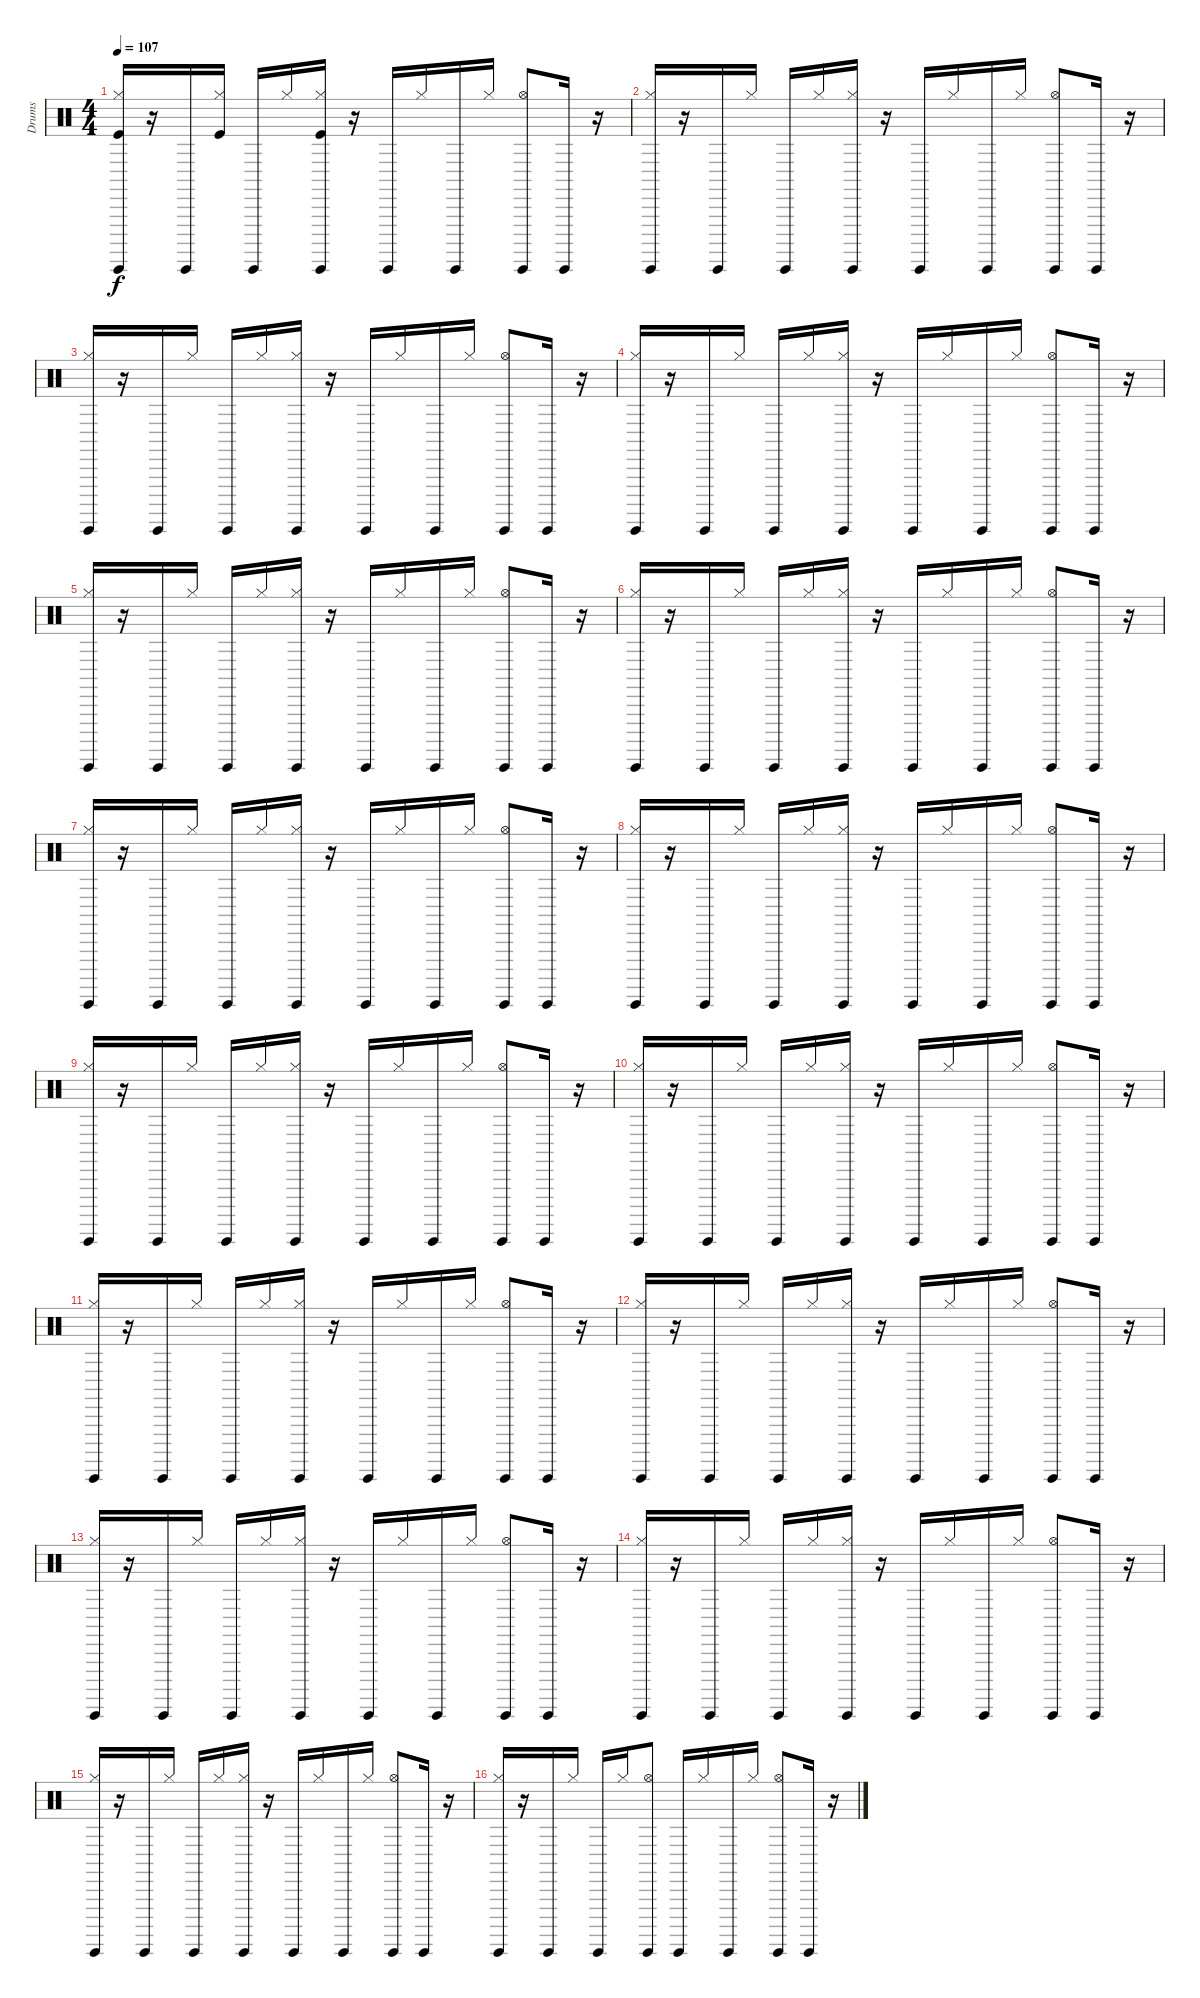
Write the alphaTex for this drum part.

\track ("Drums" "Drums") {instrument percussion}
\staff {score}
\articulation defaults
\ts (4 4)
\tempo 107
\clef neutral
\ks c
("Kick (hit)" "Guiro (hit)" "Hi-Hat (closed)").16{dy f} r.16 "Guiro (hit)".16 ("Kick (hit)" "Hi-Hat (closed)").16 "Guiro (hit)".16 "Hi-Hat (closed)".16 ("Kick (hit)" "Guiro (hit)" "Hi-Hat (closed)").16 r.16 "Guiro (hit)".16 "Hi-Hat (closed)".16 "Guiro (hit)".16 "Hi-Hat (closed)".16 ("Hi-Hat (open)" "Guiro (hit)").8 "Guiro (hit)".16 r.16 |
("Guiro (hit)" "Hi-Hat (closed)").16 r.16 "Guiro (hit)".16 "Hi-Hat (closed)".16 "Guiro (hit)".16 "Hi-Hat (closed)".16 ("Hi-Hat (closed)" "Guiro (hit)").16 r.16 "Guiro (hit)".16 "Hi-Hat (closed)".16 "Guiro (hit)".16 "Hi-Hat (closed)".16 ("Guiro (hit)" "Hi-Hat (open)").8 "Guiro (hit)".16 r.16 |
("Guiro (hit)" "Hi-Hat (closed)").16 r.16 "Guiro (hit)".16 "Hi-Hat (closed)".16 "Guiro (hit)".16 "Hi-Hat (closed)".16 ("Guiro (hit)" "Hi-Hat (closed)").16 r.16 "Guiro (hit)".16 "Hi-Hat (closed)".16 "Guiro (hit)".16 "Hi-Hat (closed)".16 ("Guiro (hit)" "Hi-Hat (open)").8 "Guiro (hit)".16 r.16 |
("Guiro (hit)" "Hi-Hat (closed)").16 r.16 "Guiro (hit)".16 "Hi-Hat (closed)".16 "Guiro (hit)".16 "Hi-Hat (closed)".16 ("Guiro (hit)" "Hi-Hat (closed)").16 r.16 "Guiro (hit)".16 "Hi-Hat (closed)".16 "Guiro (hit)".16 "Hi-Hat (closed)".16 ("Guiro (hit)" "Hi-Hat (open)").8 "Guiro (hit)".16 r.16 |
("Guiro (hit)" "Hi-Hat (closed)").16 r.16 "Guiro (hit)".16 "Hi-Hat (closed)".16 "Guiro (hit)".16 "Hi-Hat (closed)".16 ("Hi-Hat (closed)" "Guiro (hit)").16 r.16 "Guiro (hit)".16 "Hi-Hat (closed)".16 "Guiro (hit)".16 "Hi-Hat (closed)".16 ("Guiro (hit)" "Hi-Hat (open)").8 "Guiro (hit)".16 r.16 |
("Hi-Hat (closed)" "Guiro (hit)").16 r.16 "Guiro (hit)".16 "Hi-Hat (closed)".16 "Guiro (hit)".16 "Hi-Hat (closed)".16 ("Guiro (hit)" "Hi-Hat (closed)").16 r.16 "Guiro (hit)".16 "Hi-Hat (closed)".16 "Guiro (hit)".16 "Hi-Hat (closed)".16 ("Guiro (hit)" "Hi-Hat (open)").8 "Guiro (hit)".16 r.16 |
("Hi-Hat (closed)" "Guiro (hit)").16 r.16 "Guiro (hit)".16 "Hi-Hat (closed)".16 "Guiro (hit)".16 "Hi-Hat (closed)".16 ("Hi-Hat (closed)" "Guiro (hit)").16 r.16 "Guiro (hit)".16 "Hi-Hat (closed)".16 "Guiro (hit)".16 "Hi-Hat (closed)".16 ("Hi-Hat (open)" "Guiro (hit)").8 "Guiro (hit)".16 r.16 |
("Hi-Hat (closed)" "Guiro (hit)").16 r.16 "Guiro (hit)".16 "Hi-Hat (closed)".16 "Guiro (hit)".16 "Hi-Hat (closed)".16 ("Guiro (hit)" "Hi-Hat (closed)").16 r.16 "Guiro (hit)".16 "Hi-Hat (closed)".16 "Guiro (hit)".16 "Hi-Hat (closed)".16 ("Hi-Hat (open)" "Guiro (hit)").8 "Guiro (hit)".16 r.16 |
("Guiro (hit)" "Hi-Hat (closed)").16 r.16 "Guiro (hit)".16 "Hi-Hat (closed)".16 "Guiro (hit)".16 "Hi-Hat (closed)".16 ("Guiro (hit)" "Hi-Hat (closed)").16 r.16 "Guiro (hit)".16 "Hi-Hat (closed)".16 "Guiro (hit)".16 "Hi-Hat (closed)".16 ("Guiro (hit)" "Hi-Hat (open)").8 "Guiro (hit)".16 r.16 |
("Guiro (hit)" "Hi-Hat (closed)").16 r.16 "Guiro (hit)".16 "Hi-Hat (closed)".16 "Guiro (hit)".16 "Hi-Hat (closed)".16 ("Guiro (hit)" "Hi-Hat (closed)").16 r.16 "Guiro (hit)".16 "Hi-Hat (closed)".16 "Guiro (hit)".16 "Hi-Hat (closed)".16 ("Hi-Hat (open)" "Guiro (hit)").8 "Guiro (hit)".16 r.16 |
("Hi-Hat (closed)" "Guiro (hit)").16 r.16 "Guiro (hit)".16 "Hi-Hat (closed)".16 "Guiro (hit)".16 "Hi-Hat (closed)".16 ("Guiro (hit)" "Hi-Hat (closed)").16 r.16 "Guiro (hit)".16 "Hi-Hat (closed)".16 "Guiro (hit)".16 "Hi-Hat (closed)".16 ("Guiro (hit)" "Hi-Hat (open)").8 "Guiro (hit)".16 r.16 |
("Hi-Hat (closed)" "Guiro (hit)").16 r.16 "Guiro (hit)".16 "Hi-Hat (closed)".16 "Guiro (hit)".16 "Hi-Hat (closed)".16 ("Guiro (hit)" "Hi-Hat (closed)").16 r.16 "Guiro (hit)".16 "Hi-Hat (closed)".16 "Guiro (hit)".16 "Hi-Hat (closed)".16 ("Hi-Hat (open)" "Guiro (hit)").8 "Guiro (hit)".16 r.16 |
("Guiro (hit)" "Hi-Hat (closed)").16 r.16 "Guiro (hit)".16 "Hi-Hat (closed)".16 "Guiro (hit)".16 "Hi-Hat (closed)".16 ("Hi-Hat (closed)" "Guiro (hit)").16 r.16 "Guiro (hit)".16 "Hi-Hat (closed)".16 "Guiro (hit)".16 "Hi-Hat (closed)".16 ("Hi-Hat (open)" "Guiro (hit)").8 "Guiro (hit)".16 r.16 |
("Guiro (hit)" "Hi-Hat (closed)").16 r.16 "Guiro (hit)".16 "Hi-Hat (closed)".16 "Guiro (hit)".16 "Hi-Hat (closed)".16 ("Hi-Hat (closed)" "Guiro (hit)").16 r.16 "Guiro (hit)".16 "Hi-Hat (closed)".16 "Guiro (hit)".16 "Hi-Hat (closed)".16 ("Guiro (hit)" "Hi-Hat (open)").8 "Guiro (hit)".16 r.16 |
("Hi-Hat (closed)" "Guiro (hit)").16 r.16 "Guiro (hit)".16 "Hi-Hat (closed)".16 "Guiro (hit)".16 "Hi-Hat (closed)".16 ("Hi-Hat (closed)" "Guiro (hit)").16 r.16 "Guiro (hit)".16 "Hi-Hat (closed)".16 "Guiro (hit)".16 "Hi-Hat (closed)".16 ("Guiro (hit)" "Hi-Hat (open)").8 "Guiro (hit)".16 r.16 |
("Hi-Hat (closed)" "Guiro (hit)").16 r.16 "Guiro (hit)".16 "Hi-Hat (closed)".16 "Guiro (hit)".16 "Hi-Hat (closed)".16 ("Guiro (hit)" "Hi-Hat (open)").8 "Guiro (hit)".16 "Hi-Hat (closed)".16 "Guiro (hit)".16 "Hi-Hat (closed)".16 ("Hi-Hat (open)" "Guiro (hit)").8 "Guiro (hit)".16 r.16
